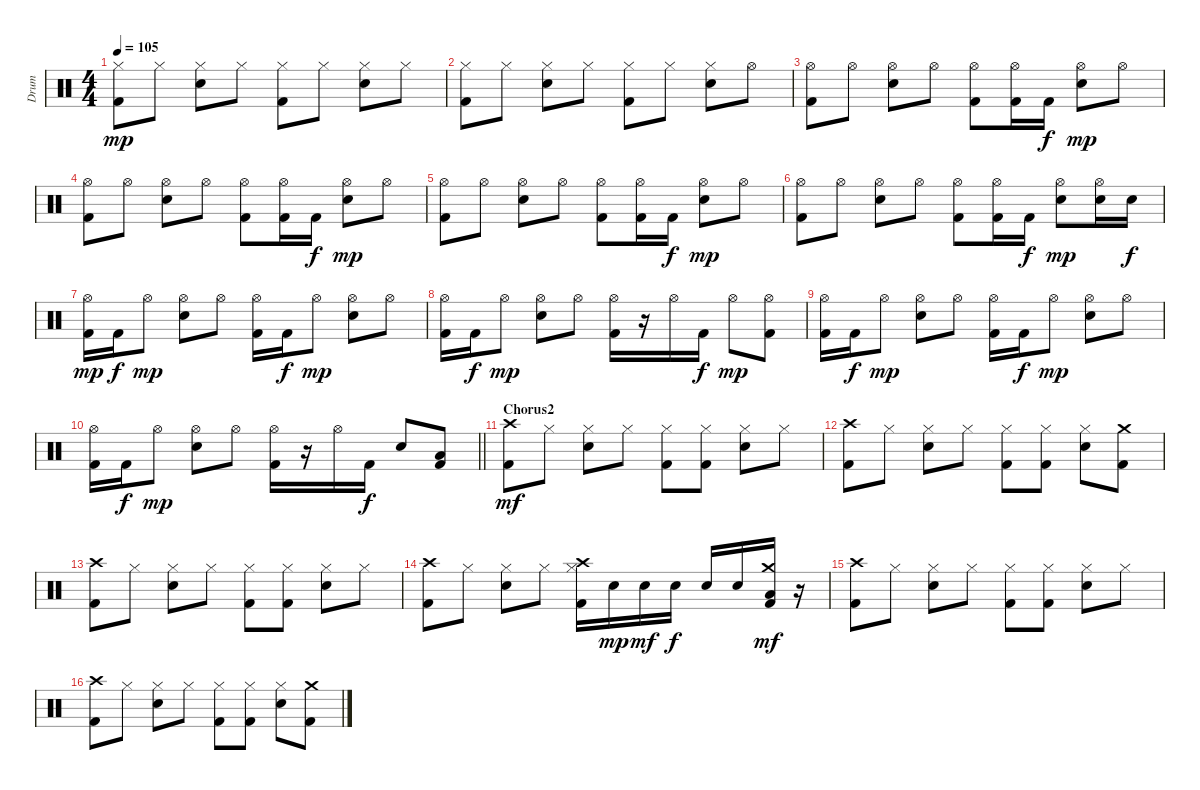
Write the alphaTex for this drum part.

\track ("Drum" "Drum") {instrument percussion}
\staff {score}
\articulation defaults
\ts (4 4)
\tempo 105
\clef neutral
\ks c
("Hi-Hat (closed)" "Kick (hit) 2").8{dy mp} "Hi-Hat (closed)".8 ("Hi-Hat (closed)" "Electric Snare (hit)").8 "Hi-Hat (closed)".8 ("Hi-Hat (closed)" "Kick (hit) 2").8 "Hi-Hat (closed)".8 ("Hi-Hat (closed)" "Electric Snare (hit)").8 "Hi-Hat (closed)".8 |
("Hi-Hat (closed)" "Kick (hit) 2").8 "Hi-Hat (closed)".8 ("Hi-Hat (closed)" "Electric Snare (hit)").8 "Hi-Hat (closed)".8 ("Hi-Hat (closed)" "Kick (hit) 2").8 "Hi-Hat (closed)".8 ("Hi-Hat (closed)" "Electric Snare (hit)").8 "Hi-Hat (open)".8 |
("Hi-Hat (open)" "Kick (hit) 2").8 "Hi-Hat (open)".8 ("Hi-Hat (open)" "Electric Snare (hit)").8 "Hi-Hat (open)".8 ("Hi-Hat (open)" "Kick (hit) 2").8 ("Hi-Hat (open)" "Kick (hit) 2").16 "Kick (hit) 2".16{dy f} ("Hi-Hat (open)" "Electric Snare (hit)").8{dy mp} "Hi-Hat (open)".8 |
("Hi-Hat (open)" "Kick (hit) 2").8 "Hi-Hat (open)".8 ("Hi-Hat (open)" "Electric Snare (hit)").8 "Hi-Hat (open)".8 ("Hi-Hat (open)" "Kick (hit) 2").8 ("Hi-Hat (open)" "Kick (hit) 2").16 "Kick (hit) 2".16{dy f} ("Hi-Hat (open)" "Electric Snare (hit)").8{dy mp} "Hi-Hat (open)".8 |
("Hi-Hat (open)" "Kick (hit) 2").8 "Hi-Hat (open)".8 ("Hi-Hat (open)" "Electric Snare (hit)").8 "Hi-Hat (open)".8 ("Hi-Hat (open)" "Kick (hit) 2").8 ("Hi-Hat (open)" "Kick (hit) 2").16 "Kick (hit) 2".16{dy f} ("Hi-Hat (open)" "Electric Snare (hit)").8{dy mp} "Hi-Hat (open)".8 |
("Hi-Hat (open)" "Kick (hit) 2").8 "Hi-Hat (open)".8 ("Hi-Hat (open)" "Electric Snare (hit)").8 "Hi-Hat (open)".8 ("Hi-Hat (open)" "Kick (hit) 2").8 ("Hi-Hat (open)" "Kick (hit) 2").16 "Kick (hit) 2".16{dy f} ("Hi-Hat (open)" "Electric Snare (hit)").8{dy mp} ("Hi-Hat (open)" "Electric Snare (hit)").16 "Electric Snare (hit)".16{dy f} |
("Hi-Hat (open)" "Kick (hit) 2").16{dy mp} "Kick (hit) 2".16{dy f} "Hi-Hat (open)".8{dy mp} ("Hi-Hat (open)" "Electric Snare (hit)").8 "Hi-Hat (open)".8 ("Hi-Hat (open)" "Kick (hit) 2").16 "Kick (hit) 2".16{dy f} "Hi-Hat (open)".8{dy mp} ("Hi-Hat (open)" "Electric Snare (hit)").8 "Hi-Hat (open)".8 |
("Hi-Hat (open)" "Kick (hit) 2").16 "Kick (hit) 2".16{dy f} "Hi-Hat (open)".8{dy mp} ("Hi-Hat (open)" "Electric Snare (hit)").8 "Hi-Hat (open)".8 ("Hi-Hat (open)" "Kick (hit) 2").16 r.16 "Hi-Hat (open)".16 "Kick (hit) 2".16{dy f} "Hi-Hat (open)".8{dy mp} ("Hi-Hat (open)" "Kick (hit) 2").8 |
("Hi-Hat (open)" "Kick (hit) 2").16 "Kick (hit) 2".16{dy f} "Hi-Hat (open)".8{dy mp} ("Hi-Hat (open)" "Electric Snare (hit)").8 "Hi-Hat (open)".8 ("Hi-Hat (open)" "Kick (hit) 2").16 "Kick (hit) 2".16{dy f} "Hi-Hat (open)".8{dy mp} ("Hi-Hat (open)" "Electric Snare (hit)").8 "Hi-Hat (open)".8 |
\barLineRight lightlight
("Hi-Hat (open)" "Kick (hit) 2").16 "Kick (hit) 2".16{dy f} "Hi-Hat (open)".8{dy mp} ("Hi-Hat (open)" "Electric Snare (hit)").8 "Hi-Hat (open)".8 ("Hi-Hat (open)" "Kick (hit) 2").16 r.16 "Hi-Hat (open)".16 "Kick (hit) 2".16{dy f} "Electric Snare (hit)".8 ("Low Tom (hit)" "Kick (hit) 2").8 |
\section ("" "Chorus2")
("Crash high (hit)" "Kick (hit) 2").8{dy mf} "Hi-Hat (closed)".8 ("Hi-Hat (closed)" "Electric Snare (hit)").8 "Hi-Hat (closed)".8 ("Hi-Hat (closed)" "Kick (hit) 2").8 ("Hi-Hat (closed)" "Kick (hit) 2").8 ("Hi-Hat (closed)" "Electric Snare (hit)").8 "Hi-Hat (closed)".8 |
("Crash high (hit)" "Kick (hit) 2").8 "Hi-Hat (closed)".8 ("Hi-Hat (closed)" "Electric Snare (hit)").8 "Hi-Hat (closed)".8 ("Hi-Hat (closed)" "Kick (hit) 2").8 ("Hi-Hat (closed)" "Kick (hit) 2").8 ("Hi-Hat (closed)" "Electric Snare (hit)").8 ("Crash medium (hit)" "Kick (hit) 2").8 |
("Crash high (hit)" "Kick (hit) 2").8 "Hi-Hat (closed)".8 ("Hi-Hat (closed)" "Electric Snare (hit)").8 "Hi-Hat (closed)".8 ("Hi-Hat (closed)" "Kick (hit) 2").8 ("Hi-Hat (closed)" "Kick (hit) 2").8 ("Hi-Hat (closed)" "Electric Snare (hit)").8 "Hi-Hat (closed)".8 |
("Crash high (hit)" "Kick (hit) 2").8 "Hi-Hat (closed)".8 ("Hi-Hat (closed)" "Electric Snare (hit)").8 "Hi-Hat (closed)".8 ("Crash high (hit)" "Hi-Hat (closed)" "Kick (hit) 2").16 "Electric Snare (hit)".16{dy mp} "Electric Snare (hit)".16{dy mf} "Electric Snare (hit)".16{dy f} "Electric Snare (hit)".16 "Electric Snare (hit)".16 ("Crash medium (hit)" "Low Floor Tom (hit)" "Kick (hit) 2").16{dy mf} r.16 |
("Crash high (hit)" "Kick (hit) 2").8 "Hi-Hat (closed)".8 ("Hi-Hat (closed)" "Electric Snare (hit)").8 "Hi-Hat (closed)".8 ("Hi-Hat (closed)" "Kick (hit) 2").8 ("Hi-Hat (closed)" "Kick (hit) 2").8 ("Hi-Hat (closed)" "Electric Snare (hit)").8 "Hi-Hat (closed)".8 |
("Crash high (hit)" "Kick (hit) 2").8 "Hi-Hat (closed)".8 ("Hi-Hat (closed)" "Electric Snare (hit)").8 "Hi-Hat (closed)".8 ("Hi-Hat (closed)" "Kick (hit) 2").8 ("Hi-Hat (closed)" "Kick (hit) 2").8 ("Hi-Hat (closed)" "Electric Snare (hit)").8 ("Crash medium (hit)" "Kick (hit) 2").8
